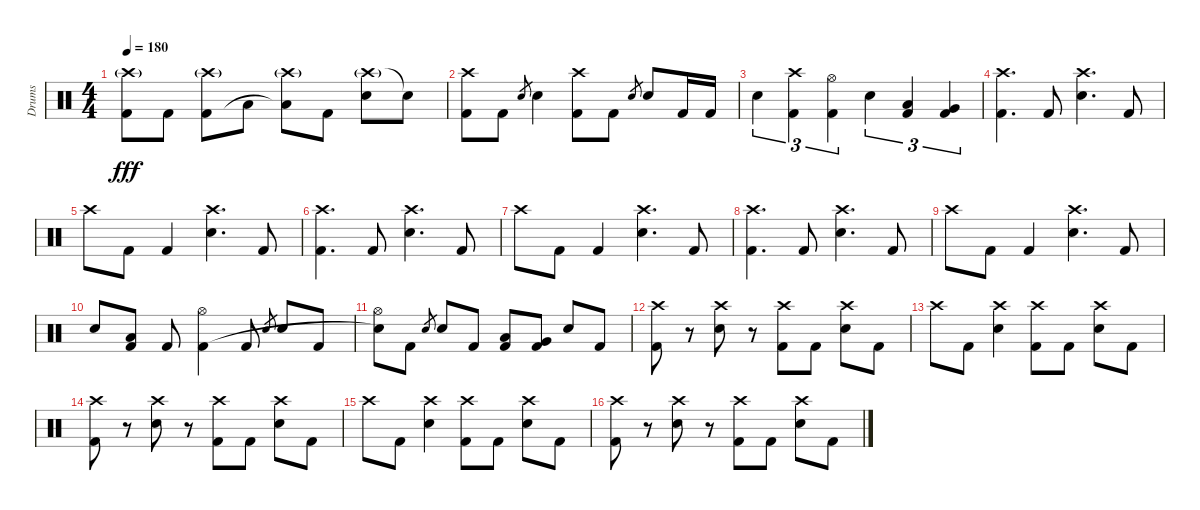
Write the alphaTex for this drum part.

\track ("Drums" "Drums") {instrument percussion}
\staff {score}
\articulation defaults
\ts (4 4)
\tempo 180
\clef neutral
\ks c
("Crash high (hit)"{g} "Kick (hit) 2").8{dy fff} "Kick (hit) 2".8 ("Crash high (hit)"{g} "Kick (hit) 2").8 "Low Tom (hit)".8 ("Crash high (hit)"{g} "Low Tom (hit)"{t}).8 "Kick (hit) 2".8 ("Crash high (hit)"{g} "Electric Snare (hit)").8 "Electric Snare (hit)"{t}.8 |
("Crash high (hit)" "Kick (hit) 2").8 "Kick (hit) 2".8 "Electric Snare (hit)".8{gr} "Electric Snare (hit)".4 ("Crash high (hit)" "Kick (hit) 2").8 "Kick (hit) 2".8 "Electric Snare (hit)".8{gr} "Electric Snare (hit)".8 "Kick (hit) 2".16 "Kick (hit) 2".16 |
"Electric Snare (hit)".4{tu (3 2)} ("Crash high (hit)" "Kick (hit) 2").4{tu (3 2)} ("Hi-Hat (open)" "Kick (hit) 2").4{tu (3 2)} "Electric Snare (hit)".4{tu (3 2)} ("Low Tom (hit)" "Kick (hit) 2").4{tu (3 2)} ("Very Low Tom (hit)" "Kick (hit) 2").4{tu (3 2)} |
("Crash high (hit)" "Kick (hit) 2").4{d} "Kick (hit) 2".8 ("Crash high (hit)" "Electric Snare (hit)").4{d} "Kick (hit) 2".8 |
"Crash high (hit)".8 "Kick (hit) 2".8 "Kick (hit) 2".4 ("Crash high (hit)" "Electric Snare (hit)").4{d} "Kick (hit) 2".8 |
("Crash high (hit)" "Kick (hit) 2").4{d} "Kick (hit) 2".8 ("Crash high (hit)" "Electric Snare (hit)").4{d} "Kick (hit) 2".8 |
"Crash high (hit)".8 "Kick (hit) 2".8 "Kick (hit) 2".4 ("Crash high (hit)" "Electric Snare (hit)").4{d} "Kick (hit) 2".8 |
("Crash high (hit)" "Kick (hit) 2").4{d} "Kick (hit) 2".8 ("Crash high (hit)" "Electric Snare (hit)").4{d} "Kick (hit) 2".8 |
"Crash high (hit)".8 "Kick (hit) 2".8 "Kick (hit) 2".4 ("Crash high (hit)" "Electric Snare (hit)").4{d} "Kick (hit) 2".8 |
"Electric Snare (hit)".8 ("Low Tom (hit)" "Kick (hit) 2").8 "Kick (hit) 2".8 ("Hi-Hat (open)" "Kick (hit) 2").4 "Kick (hit) 2".8 "Electric Snare (hit)".8{gr} "Electric Snare (hit)".8 "Kick (hit) 2".8 |
("Hi-Hat (open)" "Snare (hit)"{t}).8 "Kick (hit) 2".8 "Electric Snare (hit)".8{gr} "Electric Snare (hit)".8 "Kick (hit) 2".8 ("Low Tom (hit)" "Kick (hit) 2").8 ("Very Low Tom (hit)" "Kick (hit) 2").8 "Electric Snare (hit)".8 "Kick (hit) 2".8 |
("Crash high (hit)" "Kick (hit) 2").8 r.8 ("Crash high (hit)" "Electric Snare (hit)").8 r.8 ("Crash high (hit)" "Kick (hit) 2").8 "Kick (hit) 2".8 ("Crash high (hit)" "Electric Snare (hit)").8 "Kick (hit) 2".8 |
"Crash high (hit)".8 "Kick (hit) 2".8 ("Crash high (hit)" "Electric Snare (hit)").4 ("Crash high (hit)" "Kick (hit) 2").8 "Kick (hit) 2".8 ("Crash high (hit)" "Electric Snare (hit)").8 "Kick (hit) 2".8 |
("Crash high (hit)" "Kick (hit) 2").8 r.8 ("Crash high (hit)" "Electric Snare (hit)").8 r.8 ("Crash high (hit)" "Kick (hit) 2").8 "Kick (hit) 2".8 ("Crash high (hit)" "Electric Snare (hit)").8 "Kick (hit) 2".8 |
"Crash high (hit)".8 "Kick (hit) 2".8 ("Crash high (hit)" "Electric Snare (hit)").4 ("Crash high (hit)" "Kick (hit) 2").8 "Kick (hit) 2".8 ("Crash high (hit)" "Electric Snare (hit)").8 "Kick (hit) 2".8 |
("Crash high (hit)" "Kick (hit) 2").8 r.8 ("Crash high (hit)" "Electric Snare (hit)").8 r.8 ("Crash high (hit)" "Kick (hit) 2").8 "Kick (hit) 2".8 ("Crash high (hit)" "Electric Snare (hit)").8 "Kick (hit) 2".8
